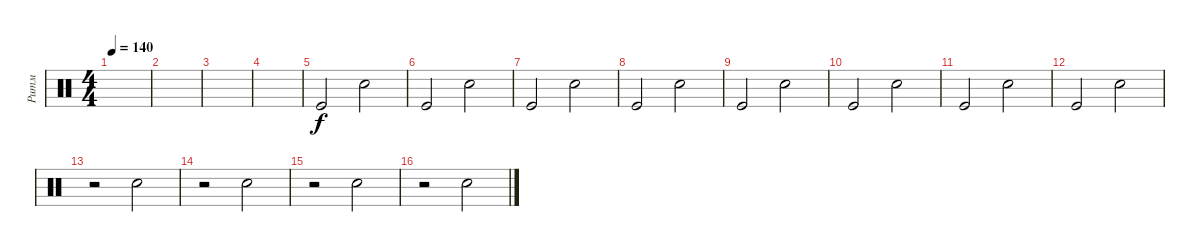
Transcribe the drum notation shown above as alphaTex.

\track ("Ритм" "Ритм") {instrument percussion}
\staff {score}
\articulation defaults
\ts (4 4)
\tempo 140
\clef neutral
\ks c
|
|
|
|
"Kick (hit)".2 "Electric Snare (hit)".2 |
"Kick (hit)".2 "Electric Snare (hit)".2 |
"Kick (hit)".2 "Electric Snare (hit)".2 |
"Kick (hit)".2 "Electric Snare (hit)".2 |
"Kick (hit)".2 "Electric Snare (hit)".2 |
"Kick (hit)".2 "Electric Snare (hit)".2 |
"Kick (hit)".2 "Electric Snare (hit)".2 |
"Kick (hit)".2 "Electric Snare (hit)".2 |
r.2 "Electric Snare (hit)".2 |
r.2 "Electric Snare (hit)".2 |
r.2 "Electric Snare (hit)".2 |
r.2 "Electric Snare (hit)".2
